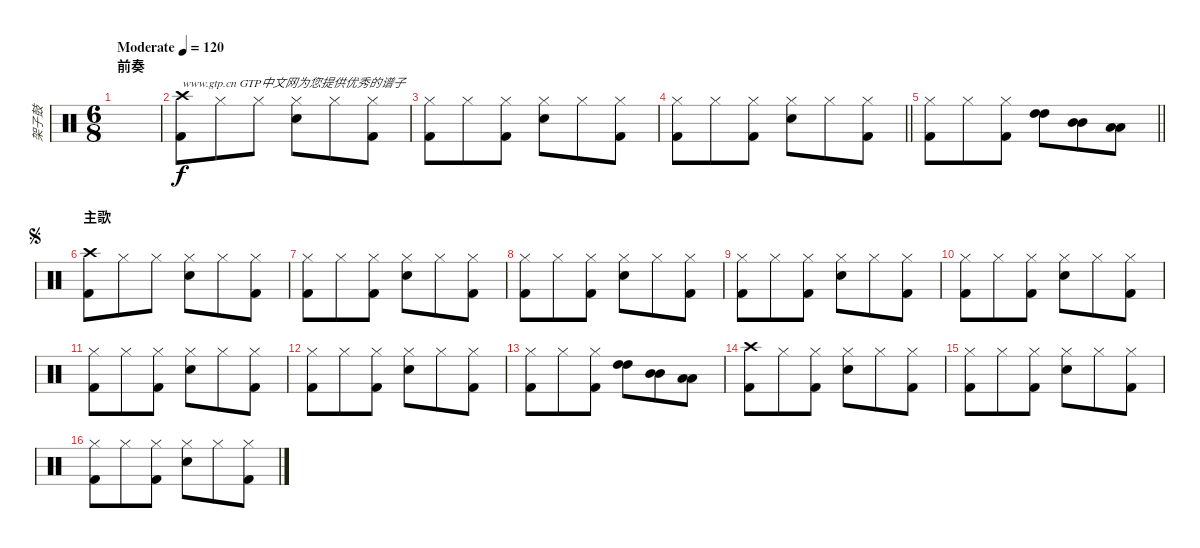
\track ("架子鼓" "架子鼓") {instrument percussion}
\staff {score}
\articulation defaults
\ts (6 8)
\section ("" "前奏")
\tempo (120 "Moderate")
\clef neutral
\ks c
|
("Crash high (hit)" "Kick (hit) 2").8{txt "www.gtp.cn GTP中文网为您提供优秀的谱子"} "Hi-Hat (closed)".8 "Hi-Hat (closed)".8 ("Hi-Hat (closed)" "Electric Snare (hit)").8 "Hi-Hat (closed)".8 ("Hi-Hat (closed)" "Kick (hit) 2").8 |
("Hi-Hat (closed)" "Kick (hit) 2").8 "Hi-Hat (closed)".8 ("Hi-Hat (closed)" "Kick (hit) 2").8 ("Hi-Hat (closed)" "Electric Snare (hit)").8 "Hi-Hat (closed)".8 ("Hi-Hat (closed)" "Kick (hit) 2").8 |
\barLineRight lightlight
("Hi-Hat (closed)" "Kick (hit) 2").8 "Hi-Hat (closed)".8 ("Hi-Hat (closed)" "Kick (hit) 2").8 ("Hi-Hat (closed)" "Electric Snare (hit)").8 "Hi-Hat (closed)".8 ("Hi-Hat (closed)" "Kick (hit) 2").8 |
\barLineRight lightlight
("Hi-Hat (closed)" "Kick (hit) 2").8 "Hi-Hat (closed)".8 ("Hi-Hat (closed)" "Kick (hit) 2").8 ("High Tom (hit)" "High Tom (hit)").8 ("Mid Tom (hit)" "Mid Tom (hit)").8 ("Low Tom (hit)" "Low Tom (hit)").8 |
\section ("" "主歌 ")
\jump segno
("Crash high (hit)" "Kick (hit) 2").8 "Hi-Hat (closed)".8 "Hi-Hat (closed)".8 ("Hi-Hat (closed)" "Electric Snare (hit)").8 "Hi-Hat (closed)".8 ("Hi-Hat (closed)" "Kick (hit) 2").8 |
("Hi-Hat (closed)" "Kick (hit) 2").8 "Hi-Hat (closed)".8 ("Hi-Hat (closed)" "Kick (hit) 2").8 ("Hi-Hat (closed)" "Electric Snare (hit)").8 "Hi-Hat (closed)".8 ("Hi-Hat (closed)" "Kick (hit) 2").8 |
("Hi-Hat (closed)" "Kick (hit) 2").8 "Hi-Hat (closed)".8 ("Hi-Hat (closed)" "Kick (hit) 2").8 ("Hi-Hat (closed)" "Electric Snare (hit)").8 "Hi-Hat (closed)".8 ("Hi-Hat (closed)" "Kick (hit) 2").8 |
("Hi-Hat (closed)" "Kick (hit) 2").8 "Hi-Hat (closed)".8 ("Hi-Hat (closed)" "Kick (hit) 2").8 ("Hi-Hat (closed)" "Electric Snare (hit)").8 "Hi-Hat (closed)".8 ("Hi-Hat (closed)" "Kick (hit) 2").8 |
("Hi-Hat (closed)" "Kick (hit) 2").8 "Hi-Hat (closed)".8 ("Hi-Hat (closed)" "Kick (hit) 2").8 ("Hi-Hat (closed)" "Electric Snare (hit)").8 "Hi-Hat (closed)".8 ("Hi-Hat (closed)" "Kick (hit) 2").8 |
("Hi-Hat (closed)" "Kick (hit) 2").8 "Hi-Hat (closed)".8 ("Hi-Hat (closed)" "Kick (hit) 2").8 ("Hi-Hat (closed)" "Electric Snare (hit)").8 "Hi-Hat (closed)".8 ("Hi-Hat (closed)" "Kick (hit) 2").8 |
("Hi-Hat (closed)" "Kick (hit) 2").8 "Hi-Hat (closed)".8 ("Hi-Hat (closed)" "Kick (hit) 2").8 ("Hi-Hat (closed)" "Electric Snare (hit)").8 "Hi-Hat (closed)".8 ("Hi-Hat (closed)" "Kick (hit) 2").8 |
("Hi-Hat (closed)" "Kick (hit) 2").8 "Hi-Hat (closed)".8 ("Hi-Hat (closed)" "Kick (hit) 2").8 ("High Tom (hit)" "High Tom (hit)").8 ("Mid Tom (hit)" "Mid Tom (hit)").8 ("Low Tom (hit)" "Low Tom (hit)").8 |
("Crash high (hit)" "Kick (hit) 2").8 "Hi-Hat (closed)".8 ("Hi-Hat (closed)" "Kick (hit) 2").8 ("Hi-Hat (closed)" "Electric Snare (hit)").8 "Hi-Hat (closed)".8 ("Hi-Hat (closed)" "Kick (hit) 2").8 |
("Hi-Hat (closed)" "Kick (hit) 2").8 "Hi-Hat (closed)".8 ("Hi-Hat (closed)" "Kick (hit) 2").8 ("Hi-Hat (closed)" "Electric Snare (hit)").8 "Hi-Hat (closed)".8 ("Hi-Hat (closed)" "Kick (hit) 2").8 |
("Hi-Hat (closed)" "Kick (hit) 2").8 "Hi-Hat (closed)".8 ("Hi-Hat (closed)" "Kick (hit) 2").8 ("Hi-Hat (closed)" "Electric Snare (hit)").8 "Hi-Hat (closed)".8 ("Hi-Hat (closed)" "Kick (hit) 2").8
